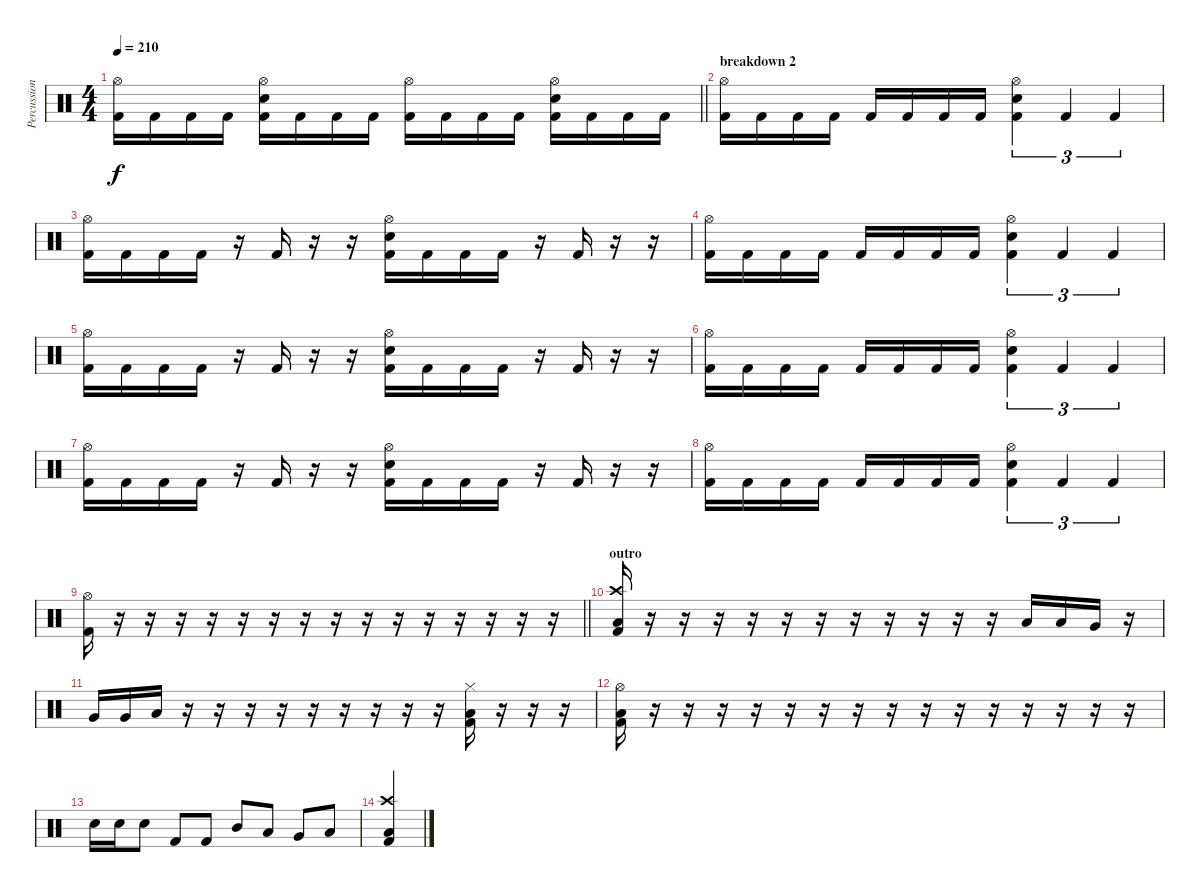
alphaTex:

\track ("Percussion" "Percussion") {instrument percussion}
\staff {score}
\articulation defaults
\ts (4 4)
\tempo 210
\clef neutral
\barLineRight lightlight
\ks c
("Hi-Hat (open)" "Kick (hit) 2").16{dy f} "Kick (hit) 2".16 "Kick (hit) 2".16 "Kick (hit) 2".16 ("Hi-Hat (open)" "Snare (hit) 2" "Kick (hit) 2").16 "Kick (hit) 2".16 "Kick (hit) 2".16 "Kick (hit) 2".16 ("Hi-Hat (open)" "Kick (hit) 2").16 "Kick (hit) 2".16 "Kick (hit) 2".16 "Kick (hit) 2".16 ("Hi-Hat (open)" "Snare (hit) 2" "Kick (hit) 2").16 "Kick (hit) 2".16 "Kick (hit) 2".16 "Kick (hit) 2".16 |
\section ("" "breakdown 2")
("Hi-Hat (open)" "Kick (hit) 2").16 "Kick (hit) 2".16 "Kick (hit) 2".16 "Kick (hit) 2".16 "Kick (hit) 2".16 "Kick (hit) 2".16 "Kick (hit) 2".16 "Kick (hit) 2".16 ("Hi-Hat (open)" "Snare (hit) 2" "Kick (hit) 2").4{tu (3 2)} "Kick (hit) 2".4{tu (3 2)} "Kick (hit) 2".4{tu (3 2)} |
("Hi-Hat (open)" "Kick (hit) 2").16 "Kick (hit) 2".16 "Kick (hit) 2".16 "Kick (hit) 2".16 r.16 "Kick (hit) 2".16 r.16 r.16 ("Hi-Hat (open)" "Snare (hit) 2" "Kick (hit) 2").16 "Kick (hit) 2".16 "Kick (hit) 2".16 "Kick (hit) 2".16 r.16 "Kick (hit) 2".16 r.16 r.16 |
("Hi-Hat (open)" "Kick (hit) 2").16 "Kick (hit) 2".16 "Kick (hit) 2".16 "Kick (hit) 2".16 "Kick (hit) 2".16 "Kick (hit) 2".16 "Kick (hit) 2".16 "Kick (hit) 2".16 ("Hi-Hat (open)" "Snare (hit) 2" "Kick (hit) 2").4{tu (3 2)} "Kick (hit) 2".4{tu (3 2)} "Kick (hit) 2".4{tu (3 2)} |
("Hi-Hat (open)" "Kick (hit) 2").16 "Kick (hit) 2".16 "Kick (hit) 2".16 "Kick (hit) 2".16 r.16 "Kick (hit) 2".16 r.16 r.16 ("Hi-Hat (open)" "Snare (hit) 2" "Kick (hit) 2").16 "Kick (hit) 2".16 "Kick (hit) 2".16 "Kick (hit) 2".16 r.16 "Kick (hit) 2".16 r.16 r.16 |
("Hi-Hat (open)" "Kick (hit) 2").16 "Kick (hit) 2".16 "Kick (hit) 2".16 "Kick (hit) 2".16 "Kick (hit) 2".16 "Kick (hit) 2".16 "Kick (hit) 2".16 "Kick (hit) 2".16 ("Hi-Hat (open)" "Snare (hit) 2" "Kick (hit) 2").4{tu (3 2)} "Kick (hit) 2".4{tu (3 2)} "Kick (hit) 2".4{tu (3 2)} |
("Hi-Hat (open)" "Kick (hit) 2").16 "Kick (hit) 2".16 "Kick (hit) 2".16 "Kick (hit) 2".16 r.16 "Kick (hit) 2".16 r.16 r.16 ("Hi-Hat (open)" "Snare (hit) 2" "Kick (hit) 2").16 "Kick (hit) 2".16 "Kick (hit) 2".16 "Kick (hit) 2".16 r.16 "Kick (hit) 2".16 r.16 r.16 |
("Hi-Hat (open)" "Kick (hit) 2").16 "Kick (hit) 2".16 "Kick (hit) 2".16 "Kick (hit) 2".16 "Kick (hit) 2".16 "Kick (hit) 2".16 "Kick (hit) 2".16 "Kick (hit) 2".16 ("Hi-Hat (open)" "Snare (hit) 2" "Kick (hit) 2").4{tu (3 2)} "Kick (hit) 2".4{tu (3 2)} "Kick (hit) 2".4{tu (3 2)} |
\barLineRight lightlight
("Hi-Hat (open)" "Kick (hit) 2").16 r.16 r.16 r.16 r.16 r.16 r.16 r.16 r.16 r.16 r.16 r.16 r.16 r.16 r.16 r.16 |
\section ("" "outro")
("Crash high (hit)" "Low Floor Tom (hit)" "Kick (hit) 2").16 r.16 r.16 r.16 r.16 r.16 r.16 r.16 r.16 r.16 r.16 r.16 "Low Tom (hit)".16 "Low Tom (hit)".16 "Very Low Tom (hit)".16 r.16 |
"Very Low Tom (hit)".16 "Very Low Tom (hit)".16 "Low Floor Tom (hit)".16 r.16 r.16 r.16 r.16 r.16 r.16 r.16 r.16 r.16 ("Hi-Hat (closed)" "Low Floor Tom (hit)" "Kick (hit) 2").16 r.16 r.16 r.16 |
("Hi-Hat (open)" "Low Floor Tom (hit)" "Kick (hit) 2").16 r.16 r.16 r.16 r.16 r.16 r.16 r.16 r.16 r.16 r.16 r.16 r.16 r.16 r.16 r.16 |
"Snare (hit) 2".16 "Snare (hit) 2".16 "Snare (hit) 2".8 "Kick (hit) 2".8 "Kick (hit) 2".8 "Mid Tom (hit)".8 "Low Tom (hit)".8 "Very Low Tom (hit)".8 "Low Floor Tom (hit)".8 |
("Crash high (hit)" "Low Floor Tom (hit)" "Kick (hit) 2").4
